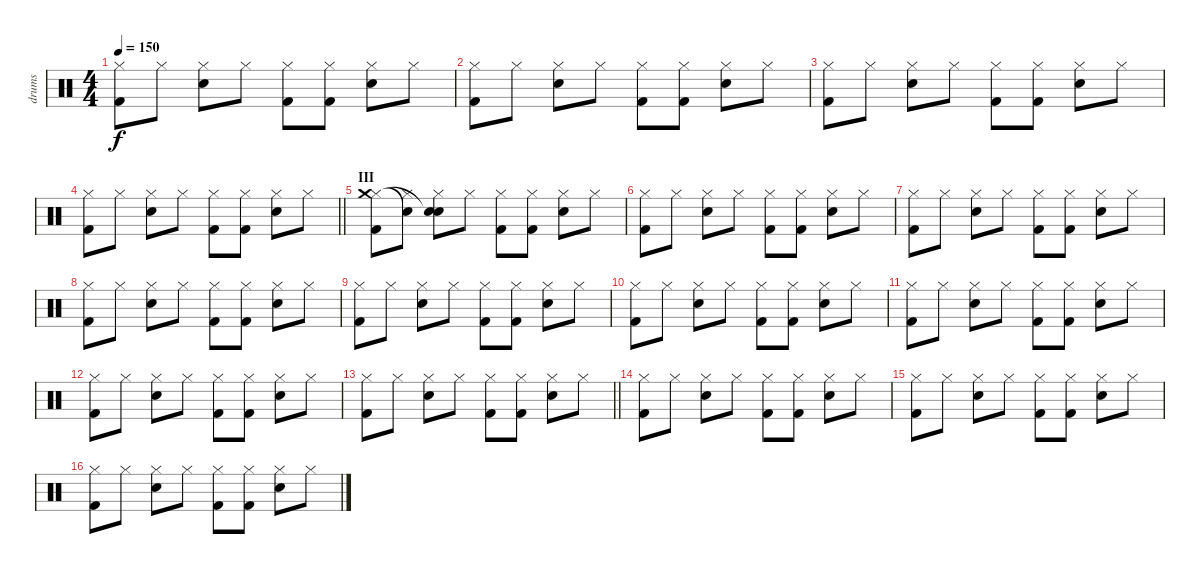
\track ("drums" "drums") {instrument percussion}
\staff {score}
\articulation defaults
\ts (4 4)
\tempo 150
\clef neutral
\ks c
("Kick (hit) 2" "Hi-Hat (closed)").8{dy f} "Hi-Hat (closed)".8 ("Snare (hit) 2" "Hi-Hat (closed)").8 "Hi-Hat (closed)".8 ("Kick (hit) 2" "Hi-Hat (closed)").8 ("Kick (hit) 2" "Hi-Hat (closed)").8 ("Snare (hit) 2" "Hi-Hat (closed)").8 "Hi-Hat (closed)".8 |
("Kick (hit) 2" "Hi-Hat (closed)").8 "Hi-Hat (closed)".8 ("Snare (hit) 2" "Hi-Hat (closed)").8 "Hi-Hat (closed)".8 ("Kick (hit) 2" "Hi-Hat (closed)").8 ("Kick (hit) 2" "Hi-Hat (closed)").8 ("Snare (hit) 2" "Hi-Hat (closed)").8 "Hi-Hat (closed)".8 |
("Kick (hit) 2" "Hi-Hat (closed)").8 "Hi-Hat (closed)".8 ("Snare (hit) 2" "Hi-Hat (closed)").8 "Hi-Hat (closed)".8 ("Kick (hit) 2" "Hi-Hat (closed)").8 ("Kick (hit) 2" "Hi-Hat (closed)").8 ("Snare (hit) 2" "Hi-Hat (closed)").8 "Hi-Hat (closed)".8 |
\barLineRight lightlight
("Kick (hit) 2" "Hi-Hat (closed)").8 "Hi-Hat (closed)".8 ("Snare (hit) 2" "Hi-Hat (closed)").8 "Hi-Hat (closed)".8 ("Kick (hit) 2" "Hi-Hat (closed)").8 ("Kick (hit) 2" "Hi-Hat (closed)").8 ("Snare (hit) 2" "Hi-Hat (closed)").8 "Hi-Hat (closed)".8 |
\section ("" "III")
("Kick (hit) 2" "Hi-Hat (closed)" "Crash medium (hit)").8 ("Hi-Hat (closed)" "Snare (hit)"{t}).8 ("Snare (hit) 2" "Hi-Hat (closed)" "Snare (hit)"{t}).8 "Hi-Hat (closed)".8 ("Kick (hit) 2" "Hi-Hat (closed)").8 ("Kick (hit) 2" "Hi-Hat (closed)").8 ("Snare (hit) 2" "Hi-Hat (closed)").8 "Hi-Hat (closed)".8 |
("Kick (hit) 2" "Hi-Hat (closed)").8 "Hi-Hat (closed)".8 ("Snare (hit) 2" "Hi-Hat (closed)").8 "Hi-Hat (closed)".8 ("Kick (hit) 2" "Hi-Hat (closed)").8 ("Kick (hit) 2" "Hi-Hat (closed)").8 ("Snare (hit) 2" "Hi-Hat (closed)").8 "Hi-Hat (closed)".8 |
("Kick (hit) 2" "Hi-Hat (closed)").8 "Hi-Hat (closed)".8 ("Snare (hit) 2" "Hi-Hat (closed)").8 "Hi-Hat (closed)".8 ("Kick (hit) 2" "Hi-Hat (closed)").8 ("Kick (hit) 2" "Hi-Hat (closed)").8 ("Snare (hit) 2" "Hi-Hat (closed)").8 "Hi-Hat (closed)".8 |
("Kick (hit) 2" "Hi-Hat (closed)").8 "Hi-Hat (closed)".8 ("Snare (hit) 2" "Hi-Hat (closed)").8 "Hi-Hat (closed)".8 ("Kick (hit) 2" "Hi-Hat (closed)").8 ("Kick (hit) 2" "Hi-Hat (closed)").8 ("Snare (hit) 2" "Hi-Hat (closed)").8 "Hi-Hat (closed)".8 |
("Kick (hit) 2" "Hi-Hat (closed)").8 "Hi-Hat (closed)".8 ("Snare (hit) 2" "Hi-Hat (closed)").8 "Hi-Hat (closed)".8 ("Kick (hit) 2" "Hi-Hat (closed)").8 ("Kick (hit) 2" "Hi-Hat (closed)").8 ("Snare (hit) 2" "Hi-Hat (closed)").8 "Hi-Hat (closed)".8 |
("Kick (hit) 2" "Hi-Hat (closed)").8 "Hi-Hat (closed)".8 ("Snare (hit) 2" "Hi-Hat (closed)").8 "Hi-Hat (closed)".8 ("Kick (hit) 2" "Hi-Hat (closed)").8 ("Kick (hit) 2" "Hi-Hat (closed)").8 ("Snare (hit) 2" "Hi-Hat (closed)").8 "Hi-Hat (closed)".8 |
("Kick (hit) 2" "Hi-Hat (closed)").8 "Hi-Hat (closed)".8 ("Snare (hit) 2" "Hi-Hat (closed)").8 "Hi-Hat (closed)".8 ("Kick (hit) 2" "Hi-Hat (closed)").8 ("Kick (hit) 2" "Hi-Hat (closed)").8 ("Snare (hit) 2" "Hi-Hat (closed)").8 "Hi-Hat (closed)".8 |
("Kick (hit) 2" "Hi-Hat (closed)").8 "Hi-Hat (closed)".8 ("Snare (hit) 2" "Hi-Hat (closed)").8 "Hi-Hat (closed)".8 ("Kick (hit) 2" "Hi-Hat (closed)").8 ("Kick (hit) 2" "Hi-Hat (closed)").8 ("Snare (hit) 2" "Hi-Hat (closed)").8 "Hi-Hat (closed)".8 |
\barLineRight lightlight
("Kick (hit) 2" "Hi-Hat (closed)").8 "Hi-Hat (closed)".8 ("Snare (hit) 2" "Hi-Hat (closed)").8 "Hi-Hat (closed)".8 ("Kick (hit) 2" "Hi-Hat (closed)").8 ("Kick (hit) 2" "Hi-Hat (closed)").8 ("Snare (hit) 2" "Hi-Hat (closed)").8 "Hi-Hat (closed)".8 |
("Kick (hit) 2" "Hi-Hat (closed)").8 "Hi-Hat (closed)".8 ("Snare (hit) 2" "Hi-Hat (closed)").8 "Hi-Hat (closed)".8 ("Kick (hit) 2" "Hi-Hat (closed)").8 ("Kick (hit) 2" "Hi-Hat (closed)").8 ("Snare (hit) 2" "Hi-Hat (closed)").8 "Hi-Hat (closed)".8 |
("Kick (hit) 2" "Hi-Hat (closed)").8 "Hi-Hat (closed)".8 ("Snare (hit) 2" "Hi-Hat (closed)").8 "Hi-Hat (closed)".8 ("Kick (hit) 2" "Hi-Hat (closed)").8 ("Kick (hit) 2" "Hi-Hat (closed)").8 ("Snare (hit) 2" "Hi-Hat (closed)").8 "Hi-Hat (closed)".8 |
("Kick (hit) 2" "Hi-Hat (closed)").8 "Hi-Hat (closed)".8 ("Snare (hit) 2" "Hi-Hat (closed)").8 "Hi-Hat (closed)".8 ("Kick (hit) 2" "Hi-Hat (closed)").8 ("Kick (hit) 2" "Hi-Hat (closed)").8 ("Snare (hit) 2" "Hi-Hat (closed)").8 "Hi-Hat (closed)".8
